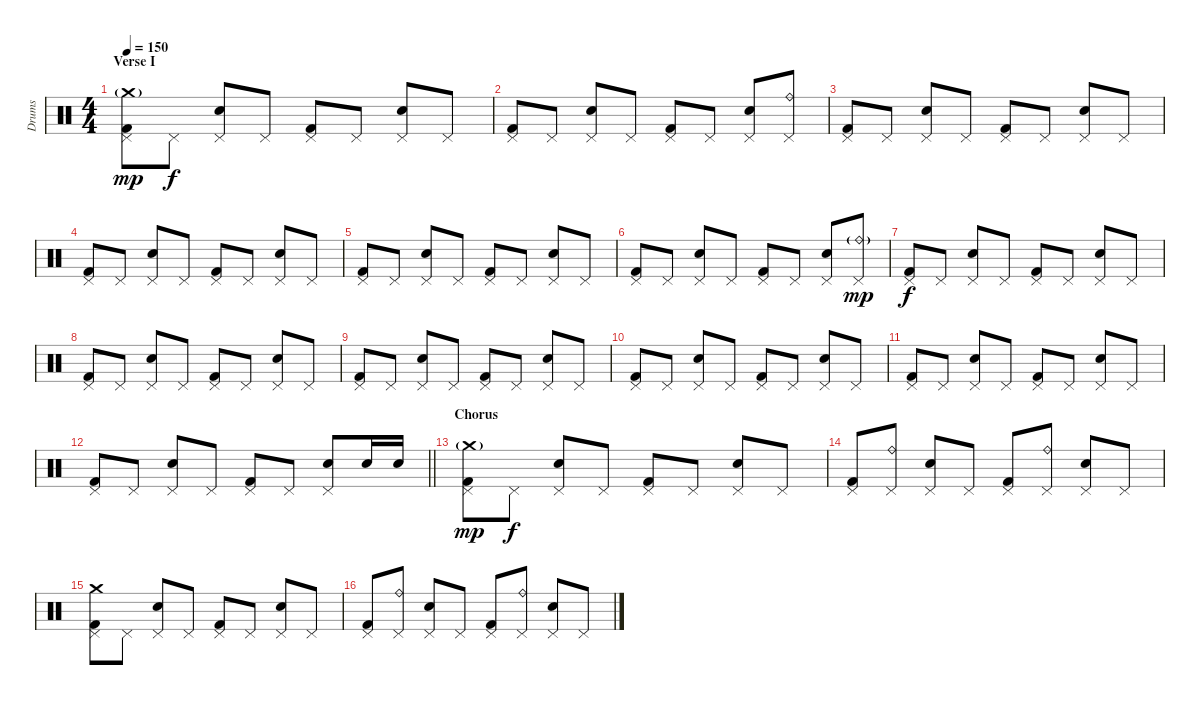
\track ("Drums" "Drums") {instrument percussion}
\staff {score}
\articulation defaults
\ts (4 4)
\section ("" "Verse I")
\tempo 150
\clef neutral
\ks c
("Crash medium (hit)"{g} "Pedal Hi-Hat (hit)" "Kick (hit) 2").8{dy mp} "Pedal Hi-Hat (hit)".8{dy f} ("Pedal Hi-Hat (hit)" "Electric Snare (hit)").8 "Pedal Hi-Hat (hit)".8 ("Pedal Hi-Hat (hit)" "Kick (hit) 2").8 "Pedal Hi-Hat (hit)".8 ("Pedal Hi-Hat (hit)" "Electric Snare (hit)").8 "Pedal Hi-Hat (hit)".8 |
("Pedal Hi-Hat (hit)" "Kick (hit) 2").8 "Pedal Hi-Hat (hit)".8 ("Pedal Hi-Hat (hit)" "Electric Snare (hit)").8 "Pedal Hi-Hat (hit)".8 ("Pedal Hi-Hat (hit)" "Kick (hit) 2").8 "Pedal Hi-Hat (hit)".8 ("Pedal Hi-Hat (hit)" "Electric Snare (hit)").8 ("Ride (bell)" "Pedal Hi-Hat (hit)").8 |
("Pedal Hi-Hat (hit)" "Kick (hit) 2").8 "Pedal Hi-Hat (hit)".8 ("Pedal Hi-Hat (hit)" "Electric Snare (hit)").8 "Pedal Hi-Hat (hit)".8 ("Pedal Hi-Hat (hit)" "Kick (hit) 2").8 "Pedal Hi-Hat (hit)".8 ("Pedal Hi-Hat (hit)" "Electric Snare (hit)").8 "Pedal Hi-Hat (hit)".8 |
("Pedal Hi-Hat (hit)" "Kick (hit) 2").8 "Pedal Hi-Hat (hit)".8 ("Pedal Hi-Hat (hit)" "Electric Snare (hit)").8 "Pedal Hi-Hat (hit)".8 ("Pedal Hi-Hat (hit)" "Kick (hit) 2").8 "Pedal Hi-Hat (hit)".8 ("Pedal Hi-Hat (hit)" "Electric Snare (hit)").8 "Pedal Hi-Hat (hit)".8 |
("Pedal Hi-Hat (hit)" "Kick (hit) 2").8 "Pedal Hi-Hat (hit)".8 ("Pedal Hi-Hat (hit)" "Electric Snare (hit)").8 "Pedal Hi-Hat (hit)".8 ("Pedal Hi-Hat (hit)" "Kick (hit) 2").8 "Pedal Hi-Hat (hit)".8 ("Pedal Hi-Hat (hit)" "Electric Snare (hit)").8 "Pedal Hi-Hat (hit)".8 |
("Pedal Hi-Hat (hit)" "Kick (hit) 2").8 "Pedal Hi-Hat (hit)".8 ("Pedal Hi-Hat (hit)" "Electric Snare (hit)").8 "Pedal Hi-Hat (hit)".8 ("Pedal Hi-Hat (hit)" "Kick (hit) 2").8 "Pedal Hi-Hat (hit)".8 ("Pedal Hi-Hat (hit)" "Electric Snare (hit)").8 ("Ride (bell)"{g} "Pedal Hi-Hat (hit)").8{dy mp} |
("Pedal Hi-Hat (hit)" "Kick (hit) 2").8{dy f} "Pedal Hi-Hat (hit)".8 ("Pedal Hi-Hat (hit)" "Electric Snare (hit)").8 "Pedal Hi-Hat (hit)".8 ("Pedal Hi-Hat (hit)" "Kick (hit) 2").8 "Pedal Hi-Hat (hit)".8 ("Pedal Hi-Hat (hit)" "Electric Snare (hit)").8 "Pedal Hi-Hat (hit)".8 |
("Pedal Hi-Hat (hit)" "Kick (hit) 2").8 "Pedal Hi-Hat (hit)".8 ("Pedal Hi-Hat (hit)" "Electric Snare (hit)").8 "Pedal Hi-Hat (hit)".8 ("Pedal Hi-Hat (hit)" "Kick (hit) 2").8 "Pedal Hi-Hat (hit)".8 ("Pedal Hi-Hat (hit)" "Electric Snare (hit)").8 "Pedal Hi-Hat (hit)".8 |
("Pedal Hi-Hat (hit)" "Kick (hit) 2").8 "Pedal Hi-Hat (hit)".8 ("Pedal Hi-Hat (hit)" "Electric Snare (hit)").8 "Pedal Hi-Hat (hit)".8 ("Pedal Hi-Hat (hit)" "Kick (hit) 2").8 "Pedal Hi-Hat (hit)".8 ("Pedal Hi-Hat (hit)" "Electric Snare (hit)").8 "Pedal Hi-Hat (hit)".8 |
("Pedal Hi-Hat (hit)" "Kick (hit) 2").8 "Pedal Hi-Hat (hit)".8 ("Pedal Hi-Hat (hit)" "Electric Snare (hit)").8 "Pedal Hi-Hat (hit)".8 ("Pedal Hi-Hat (hit)" "Kick (hit) 2").8 "Pedal Hi-Hat (hit)".8 ("Pedal Hi-Hat (hit)" "Electric Snare (hit)").8 "Pedal Hi-Hat (hit)".8 |
("Pedal Hi-Hat (hit)" "Kick (hit) 2").8 "Pedal Hi-Hat (hit)".8 ("Pedal Hi-Hat (hit)" "Electric Snare (hit)").8 "Pedal Hi-Hat (hit)".8 ("Pedal Hi-Hat (hit)" "Kick (hit) 2").8 "Pedal Hi-Hat (hit)".8 ("Pedal Hi-Hat (hit)" "Electric Snare (hit)").8 "Pedal Hi-Hat (hit)".8 |
\barLineRight lightlight
("Pedal Hi-Hat (hit)" "Kick (hit) 2").8 "Pedal Hi-Hat (hit)".8 ("Pedal Hi-Hat (hit)" "Electric Snare (hit)").8 "Pedal Hi-Hat (hit)".8 ("Pedal Hi-Hat (hit)" "Kick (hit) 2").8 "Pedal Hi-Hat (hit)".8 ("Pedal Hi-Hat (hit)" "Electric Snare (hit)").8 "Electric Snare (hit)".16 "Electric Snare (hit)".16 |
\section ("" "Chorus")
("Crash medium (hit)"{g} "Pedal Hi-Hat (hit)" "Kick (hit) 2").8{dy mp} "Pedal Hi-Hat (hit)".8{dy f} ("Pedal Hi-Hat (hit)" "Electric Snare (hit)").8 "Pedal Hi-Hat (hit)".8 ("Pedal Hi-Hat (hit)" "Kick (hit) 2").8 "Pedal Hi-Hat (hit)".8 ("Pedal Hi-Hat (hit)" "Electric Snare (hit)").8 "Pedal Hi-Hat (hit)".8 |
("Pedal Hi-Hat (hit)" "Kick (hit) 2").8 ("Ride (bell)" "Pedal Hi-Hat (hit)").8 ("Pedal Hi-Hat (hit)" "Electric Snare (hit)").8 "Pedal Hi-Hat (hit)".8 ("Pedal Hi-Hat (hit)" "Kick (hit) 2").8 ("Ride (bell)" "Pedal Hi-Hat (hit)").8 ("Pedal Hi-Hat (hit)" "Electric Snare (hit)").8 "Pedal Hi-Hat (hit)".8 |
("Crash medium (hit)" "Pedal Hi-Hat (hit)" "Kick (hit) 2").8 "Pedal Hi-Hat (hit)".8 ("Pedal Hi-Hat (hit)" "Electric Snare (hit)").8 "Pedal Hi-Hat (hit)".8 ("Pedal Hi-Hat (hit)" "Kick (hit) 2").8 "Pedal Hi-Hat (hit)".8 ("Pedal Hi-Hat (hit)" "Electric Snare (hit)").8 "Pedal Hi-Hat (hit)".8 |
("Pedal Hi-Hat (hit)" "Kick (hit) 2").8 ("Ride (bell)" "Pedal Hi-Hat (hit)").8 ("Pedal Hi-Hat (hit)" "Electric Snare (hit)").8 "Pedal Hi-Hat (hit)".8 ("Pedal Hi-Hat (hit)" "Kick (hit) 2").8 ("Ride (bell)" "Pedal Hi-Hat (hit)").8 ("Pedal Hi-Hat (hit)" "Electric Snare (hit)").8 "Pedal Hi-Hat (hit)".8
